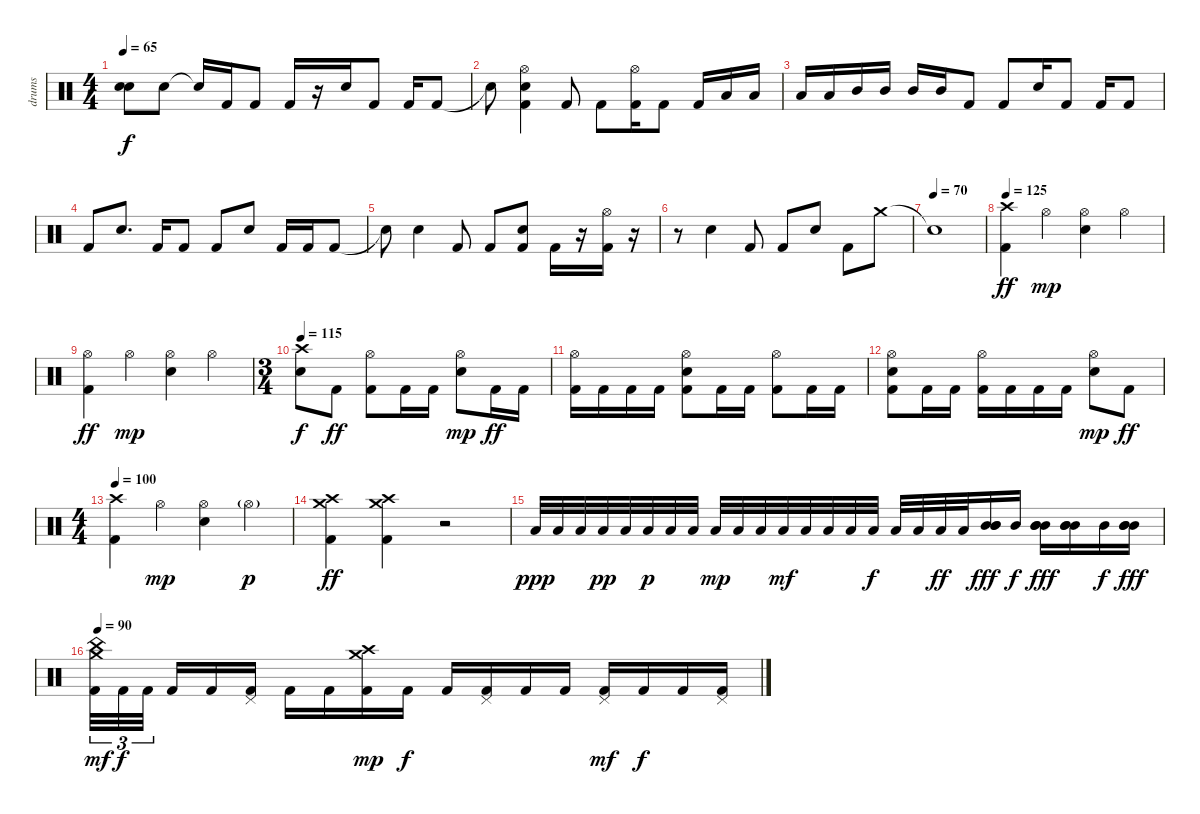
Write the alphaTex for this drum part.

\track ("drums" "drums") {instrument percussion}
\staff {score}
\articulation defaults
\ts (4 4)
\tempo 65
\clef neutral
\ks c
("Snare (hit) 2"{t} "Snare (hit)"{t}).8{dy f} "Snare (hit) 2".8 "Snare (hit)"{t}.16 "Kick (hit) 2".16 "Kick (hit) 2".8 "Kick (hit) 2".16 r.16 "Snare (hit) 2".16 "Kick (hit) 2".8 "Kick (hit) 2".16 "Kick (hit) 2".8 |
"Snare (hit)"{t}.8 ("Hi-Hat (open)" "Snare (hit) 2" "Kick (hit) 2").4 "Kick (hit) 2".8 "Kick (hit) 2".8 ("Hi-Hat (open)" "Kick (hit) 2").16 "Kick (hit) 2".8 "Kick (hit) 2".16 "Low Tom (hit)".16 "Low Tom (hit)".16 |
"Low Tom (hit)".16 "Low Tom (hit)".16 "Mid Tom (hit)".16 "Mid Tom (hit)".16 "Mid Tom (hit)".16 "Mid Tom (hit)".16 "Kick (hit) 2".8 "Kick (hit) 2".8 "Snare (hit) 2".16 "Kick (hit) 2".8 "Kick (hit) 2".16 "Kick (hit) 2".8 |
"Kick (hit) 2".8 "Snare (hit) 2".8{d} "Kick (hit) 2".16 "Kick (hit) 2".8 "Kick (hit) 2".8 "Snare (hit) 2".8 "Kick (hit) 2".16 "Kick (hit) 2".16 "Kick (hit) 2".8 |
"Snare (hit)"{t}.8 "Snare (hit) 2".4 "Kick (hit) 2".8 "Kick (hit) 2".8 ("Snare (hit) 2" "Kick (hit) 2").8 "Kick (hit) 2".16 r.16 ("Hi-Hat (open)" "Kick (hit) 2").16 r.16 |
r.8 "Snare (hit) 2".4 "Kick (hit) 2".8 "Kick (hit) 2".8 "Snare (hit) 2".8 "Kick (hit) 2".8 "Crash medium (hit)".8 |
\tempo (70)
"Snare (hit)"{t}.1 |
\tempo 125
("Crash high (hit)" "Kick (hit) 2").4{dy ff} "Hi-Hat (open)".4{dy mp} ("Hi-Hat (open)" "Snare (hit) 2").4 "Hi-Hat (open)".4 |
("Hi-Hat (open)" "Kick (hit) 2").4{dy ff} "Hi-Hat (open)".4{dy mp} ("Hi-Hat (open)" "Snare (hit) 2").4 "Hi-Hat (open)".4 |
\ts (3 4)
\tempo 115
("Crash high (hit)" "Snare (hit) 2").8{dy f} "Kick (hit) 2".8{dy ff} ("Hi-Hat (open)" "Kick (hit) 2").8 "Kick (hit) 2".16 "Kick (hit) 2".16 ("Hi-Hat (open)" "Snare (hit) 2").8{dy mp} "Kick (hit) 2".16{dy ff} "Kick (hit) 2".16 |
("Hi-Hat (open)" "Kick (hit) 2").16 "Kick (hit) 2".16 "Kick (hit) 2".16 "Kick (hit) 2".16 ("Hi-Hat (open)" "Snare (hit) 2" "Kick (hit) 2").8 "Kick (hit) 2".16 "Kick (hit) 2".16 ("Hi-Hat (open)" "Kick (hit) 2").8 "Kick (hit) 2".16 "Kick (hit) 2".16 |
("Hi-Hat (open)" "Snare (hit) 2" "Kick (hit) 2").8 "Kick (hit) 2".16 "Kick (hit) 2".16 ("Hi-Hat (open)" "Kick (hit) 2").16 "Kick (hit) 2".16 "Kick (hit) 2".16 "Kick (hit) 2".16 ("Hi-Hat (open)" "Snare (hit) 2").8{dy mp} "Kick (hit) 2".8{dy ff} |
\ts (4 4)
\tempo 100
("Crash high (hit)" "Kick (hit) 2").4 "Hi-Hat (open)".4{dy mp} ("Hi-Hat (open)" "Snare (hit) 2").4 "Hi-Hat (open)"{g}.4{dy p} |
("Crash medium (hit)" "Crash high (hit)" "Kick (hit) 2").4{dy ff} ("Crash medium (hit)" "Crash high (hit)" "Kick (hit) 2").4 r.2 |
"Low Tom (hit)".32{dy ppp} "Low Tom (hit)".32 "Low Tom (hit)".32 "Low Tom (hit)".32{dy pp} "Low Tom (hit)".32 "Low Tom (hit)".32{dy p} "Low Tom (hit)".32 "Low Tom (hit)".32 "Low Tom (hit)".32{dy mp} "Low Tom (hit)".32 "Low Tom (hit)".32 "Low Tom (hit)".32{dy mf} "Low Tom (hit)".32 "Low Tom (hit)".32 "Low Tom (hit)".32 "Low Tom (hit)".32{dy f} "Low Tom (hit)".32 "Low Tom (hit)".32 "Low Tom (hit)".32{dy ff} "Low Tom (hit)".32 ("Mid Tom (hit)" "Mid Tom (hit)" "Mid Tom (hit)").16{dy fff} "Mid Tom (hit)".16{dy f} ("Mid Tom (hit)" "Mid Tom (hit)" "Mid Tom (hit)").16{dy fff} ("Mid Tom (hit)" "Mid Tom (hit)" "Mid Tom (hit)").16 "Mid Tom (hit)".16{dy f} ("Mid Tom (hit)" "Mid Tom (hit)" "Mid Tom (hit)").16{dy fff} |
\tempo 90
("China (hit)" "Crash medium (hit)" "Kick (hit) 2").32{tu (3 2) dy mf} "Kick (hit) 2".32{tu (3 2) dy f} "Kick (hit) 2".32{tu (3 2) beam splitsecondary} "Kick (hit) 2".16 "Kick (hit) 2".16 ("Pedal Hi-Hat (hit)" "Kick (hit) 2").16 "Kick (hit) 2".16 "Kick (hit) 2".16 ("Crash medium (hit)" "Crash high (hit)" "Kick (hit) 2").16{dy mp} "Kick (hit) 2".16{dy f} "Kick (hit) 2".16 ("Pedal Hi-Hat (hit)" "Kick (hit) 2").16 "Kick (hit) 2".16 "Kick (hit) 2".16 ("Pedal Hi-Hat (hit)" "Kick (hit) 2").16{dy mf} "Kick (hit) 2".16{dy f} "Kick (hit) 2".16 ("Pedal Hi-Hat (hit)" "Kick (hit) 2").16
